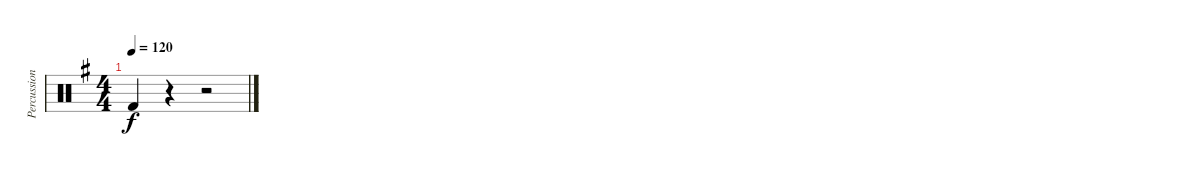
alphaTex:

\track ("Percussion" "Percussion") {instrument percussion}
\staff {score}
\articulation defaults
\ts (4 4)
\tempo 120
\clef neutral
\ks eminor "Kick (hit) 2".4{dy f}
r.4 r.2
